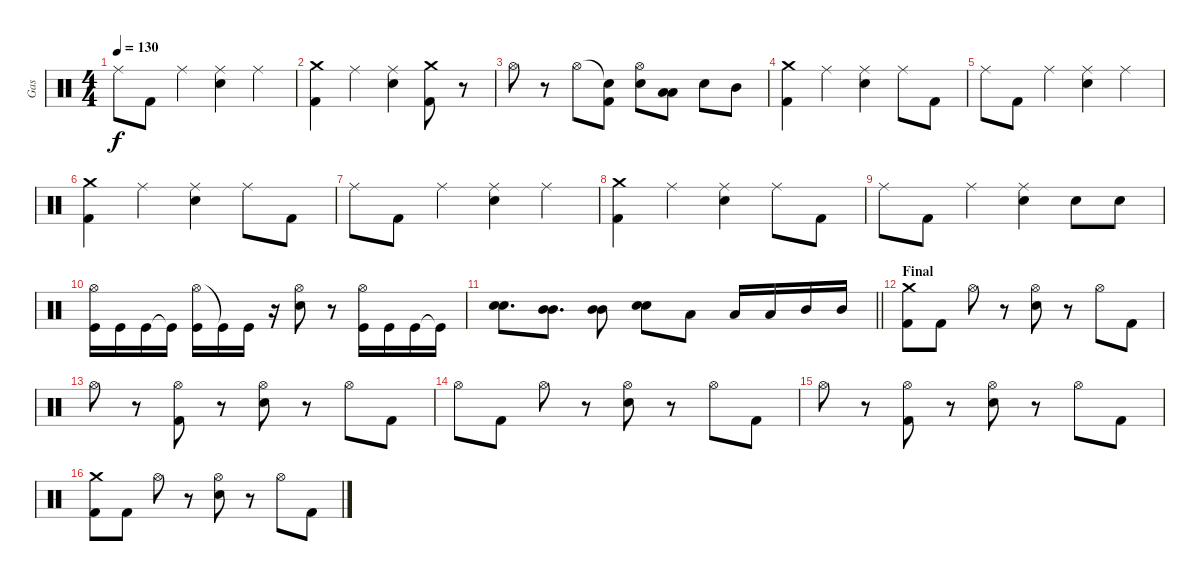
\track ("Gas" "Gas") {instrument percussion}
\staff {score}
\articulation defaults
\ts (4 4)
\tempo 130
\clef neutral
\ks c "Ride (middle)".8{dy f} "Kick (hit) 2".8 "Ride (middle)".4
("Ride (middle)" "Electric Snare (hit)").4 "Ride (middle)".4 |
("Crash medium (hit)" "Kick (hit) 2").4 "Ride (middle)".4 ("Ride (middle)" "Electric Snare (hit)").4 ("Crash medium (hit)" "Kick (hit) 2").8 r.8 |
"Hi-Hat (open)".8 r.8 "Hi-Hat (open)".8 ("Snare (hit)"{t} "Kick (hit) 2").8 ("Hi-Hat (open)" "Electric Snare (hit)").8 ("Low Tom (hit)" "Low Tom (hit)").8{bd 60} "Electric Snare (hit)".8 "Mid Tom (hit)".8 |
("Crash medium (hit)" "Kick (hit) 2").4 "Ride (middle)".4 ("Ride (middle)" "Electric Snare (hit)").4 "Ride (middle)".8 "Kick (hit) 2".8 |
"Ride (middle)".8 "Kick (hit) 2".8 "Ride (middle)".4 ("Ride (middle)" "Electric Snare (hit)").4 "Ride (middle)".4 |
("Crash medium (hit)" "Kick (hit) 2").4 "Ride (middle)".4 ("Ride (middle)" "Electric Snare (hit)").4 "Ride (middle)".8 "Kick (hit) 2".8 |
"Ride (middle)".8 "Kick (hit) 2".8 "Ride (middle)".4 ("Ride (middle)" "Electric Snare (hit)").4 "Ride (middle)".4 |
("Crash medium (hit)" "Kick (hit) 2").4 "Ride (middle)".4 ("Ride (middle)" "Electric Snare (hit)").4 "Ride (middle)".8 "Kick (hit) 2".8 |
"Ride (middle)".8 "Kick (hit) 2".8 "Ride (middle)".4 ("Ride (middle)" "Electric Snare (hit)").4 "Electric Snare (hit)".8 "Electric Snare (hit)".8 |
("Hi-Hat (open)" "Kick (hit)").16 "Kick (hit)".16 "Kick (hit)".16 "Kick (hit)"{t}.16 ("Hi-Hat (open)" "Kick (hit)").16 "Kick (hit)"{t}.16 "Kick (hit)".16 r.16 ("Hi-Hat (open)" "Electric Snare (hit)").8 r.8 ("Hi-Hat (open)" "Kick (hit)").16 "Kick (hit)".16 "Kick (hit)".16 "Kick (hit)"{t}.16 |
\barLineRight lightlight
("Electric Snare (hit)" "Electric Snare (hit)").8{d bd 60} ("Mid Tom (hit)" "Mid Tom (hit)").8{d bd 60} ("Mid Tom (hit)" "Mid Tom (hit)").8{bd 60} ("Electric Snare (hit)" "Electric Snare (hit)").8{bd 60} "Low Tom (hit)".8 "Low Tom (hit)".16 "Low Tom (hit)".16 "Mid Tom (hit)".16 "Mid Tom (hit)".16 |
\section ("" "Final")
("Crash medium (hit)" "Kick (hit) 2").8 "Kick (hit) 2".8 "Hi-Hat (open)".8 r.8 ("Hi-Hat (open)" "Electric Snare (hit)").8 r.8 "Hi-Hat (open)".8 "Kick (hit) 2".8 |
"Hi-Hat (open)".8 r.8 ("Hi-Hat (open)" "Kick (hit) 2").8 r.8 ("Hi-Hat (open)" "Electric Snare (hit)").8 r.8 "Hi-Hat (open)".8 "Kick (hit) 2".8 |
"Hi-Hat (open)".8 "Kick (hit) 2".8 "Hi-Hat (open)".8 r.8 ("Hi-Hat (open)" "Electric Snare (hit)").8 r.8 "Hi-Hat (open)".8 "Kick (hit) 2".8 |
"Hi-Hat (open)".8 r.8 ("Hi-Hat (open)" "Kick (hit) 2").8 r.8 ("Hi-Hat (open)" "Electric Snare (hit)").8 r.8 "Hi-Hat (open)".8 "Kick (hit) 2".8 |
("Crash medium (hit)" "Kick (hit) 2").8 "Kick (hit) 2".8 "Hi-Hat (open)".8 r.8 ("Hi-Hat (open)" "Electric Snare (hit)").8 r.8 "Hi-Hat (open)".8 "Kick (hit) 2".8
